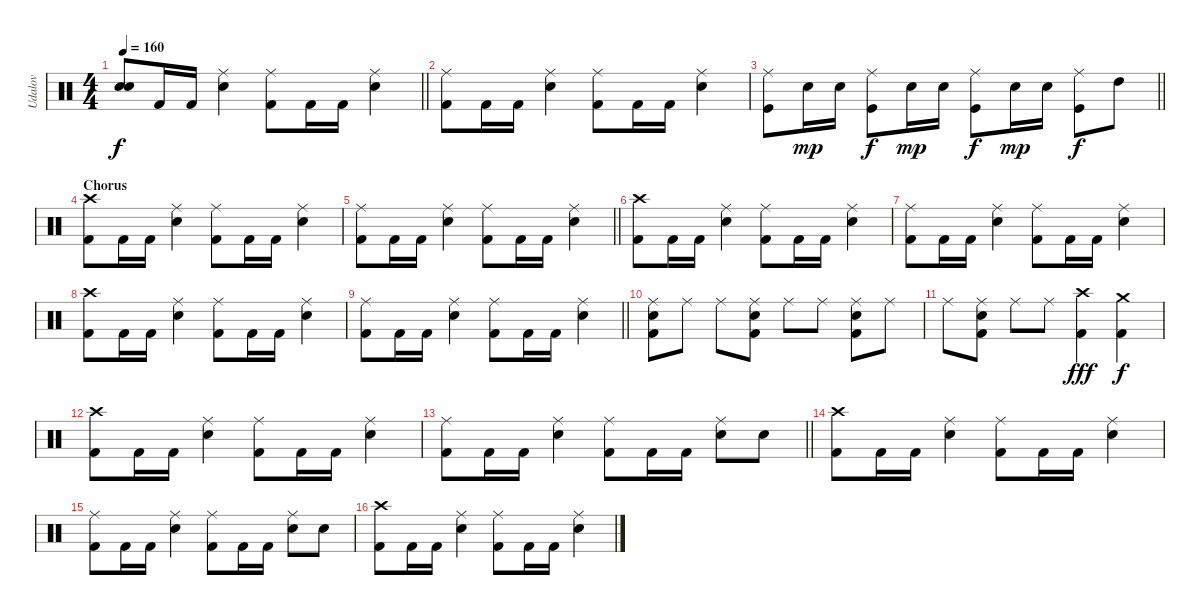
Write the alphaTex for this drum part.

\track ("Udalov" "Udalov") {instrument percussion}
\staff {score}
\articulation defaults
\ts (4 4)
\tempo 160
\clef neutral
\barLineRight lightlight
\ks c
("Snare (hit)"{t} "Snare (hit)"{t}).8{dy f} "Kick (hit) 2".16 "Kick (hit) 2".16 ("Snare (hit) 2" "Ride (middle)").4 ("Kick (hit) 2" "Ride (middle)").8 "Kick (hit) 2".16 "Kick (hit) 2".16 ("Snare (hit) 2" "Ride (middle)").4 |
("Kick (hit) 2" "Ride (middle)").8 "Kick (hit) 2".16 "Kick (hit) 2".16 ("Snare (hit) 2" "Ride (middle)").4 ("Kick (hit) 2" "Ride (middle)").8 "Kick (hit) 2".16 "Kick (hit) 2".16 ("Snare (hit) 2" "Ride (middle)").4 |
\barLineRight lightlight
("Ride (middle)" "Kick (hit)").8 "Snare (hit) 2".16{dy mp} "Snare (hit) 2".16 ("Ride (middle)" "Kick (hit)").8{dy f} "Snare (hit) 2".16{dy mp} "Snare (hit) 2".16 ("Ride (middle)" "Kick (hit)").8{dy f} "Snare (hit) 2".16{dy mp} "Snare (hit) 2".16 ("Ride (middle)" "Kick (hit)").8{dy f} "High Tom (hit)".8 |
\section ("" "Chorus")
("Kick (hit) 2" "Crash high (hit)").8 "Kick (hit) 2".16 "Kick (hit) 2".16 ("Snare (hit) 2" "Ride (middle)").4 ("Kick (hit) 2" "Ride (middle)").8 "Kick (hit) 2".16 "Kick (hit) 2".16 ("Snare (hit) 2" "Ride (middle)").4 |
\barLineRight lightlight
("Kick (hit) 2" "Ride (middle)").8 "Kick (hit) 2".16 "Kick (hit) 2".16 ("Snare (hit) 2" "Ride (middle)").4 ("Kick (hit) 2" "Ride (middle)").8 "Kick (hit) 2".16 "Kick (hit) 2".16 ("Snare (hit) 2" "Ride (middle)").4 |
("Kick (hit) 2" "Crash high (hit)").8 "Kick (hit) 2".16 "Kick (hit) 2".16 ("Snare (hit) 2" "Ride (middle)").4 ("Kick (hit) 2" "Ride (middle)").8 "Kick (hit) 2".16 "Kick (hit) 2".16 ("Snare (hit) 2" "Ride (middle)").4 |
("Kick (hit) 2" "Ride (middle)").8 "Kick (hit) 2".16 "Kick (hit) 2".16 ("Snare (hit) 2" "Ride (middle)").4 ("Kick (hit) 2" "Ride (middle)").8 "Kick (hit) 2".16 "Kick (hit) 2".16 ("Snare (hit) 2" "Ride (middle)").4 |
("Kick (hit) 2" "Crash high (hit)").8 "Kick (hit) 2".16 "Kick (hit) 2".16 ("Snare (hit) 2" "Ride (middle)").4 ("Kick (hit) 2" "Ride (middle)").8 "Kick (hit) 2".16 "Kick (hit) 2".16 ("Snare (hit) 2" "Ride (middle)").4 |
\barLineRight lightlight
("Kick (hit) 2" "Ride (middle)").8 "Kick (hit) 2".16 "Kick (hit) 2".16 ("Snare (hit) 2" "Ride (middle)").4 ("Kick (hit) 2" "Ride (middle)").8 "Kick (hit) 2".16 "Kick (hit) 2".16 ("Snare (hit) 2" "Ride (middle)").4 |
("Snare (hit) 2" "Ride (middle)" "Kick (hit) 2").8 "Ride (middle)".8 "Ride (middle)".8 ("Snare (hit) 2" "Ride (middle)" "Kick (hit) 2").8 "Ride (middle)".8 "Ride (middle)".8 ("Snare (hit) 2" "Ride (middle)" "Kick (hit) 2").8 "Ride (middle)".8 |
"Ride (middle)".8 ("Snare (hit) 2" "Ride (middle)" "Kick (hit) 2").8 "Ride (middle)".8 "Ride (middle)".8 ("Kick (hit) 2" "Crash high (hit)").4{dy fff} ("Kick (hit) 2" "Crash medium (hit)").4{dy f} |
("Kick (hit) 2" "Crash high (hit)").8 "Kick (hit) 2".16 "Kick (hit) 2".16 ("Snare (hit) 2" "Ride (middle)").4 ("Kick (hit) 2" "Ride (middle)").8 "Kick (hit) 2".16 "Kick (hit) 2".16 ("Snare (hit) 2" "Ride (middle)").4 |
\barLineRight lightlight
("Kick (hit) 2" "Ride (middle)").8 "Kick (hit) 2".16 "Kick (hit) 2".16 ("Snare (hit) 2" "Ride (middle)").4 ("Kick (hit) 2" "Ride (middle)").8 "Kick (hit) 2".16 "Kick (hit) 2".16 ("Snare (hit) 2" "Ride (middle)").8 "Snare (hit) 2".8 |
("Kick (hit) 2" "Crash high (hit)").8 "Kick (hit) 2".16 "Kick (hit) 2".16 ("Snare (hit) 2" "Ride (middle)").4 ("Kick (hit) 2" "Ride (middle)").8 "Kick (hit) 2".16 "Kick (hit) 2".16 ("Snare (hit) 2" "Ride (middle)").4 |
("Kick (hit) 2" "Ride (middle)").8 "Kick (hit) 2".16 "Kick (hit) 2".16 ("Snare (hit) 2" "Ride (middle)").4 ("Kick (hit) 2" "Ride (middle)").8 "Kick (hit) 2".16 "Kick (hit) 2".16 ("Snare (hit) 2" "Ride (middle)").8 "Snare (hit) 2".8 |
("Kick (hit) 2" "Crash high (hit)").8 "Kick (hit) 2".16 "Kick (hit) 2".16 ("Snare (hit) 2" "Ride (middle)").4 ("Kick (hit) 2" "Ride (middle)").8 "Kick (hit) 2".16 "Kick (hit) 2".16 ("Snare (hit) 2" "Ride (middle)").4
